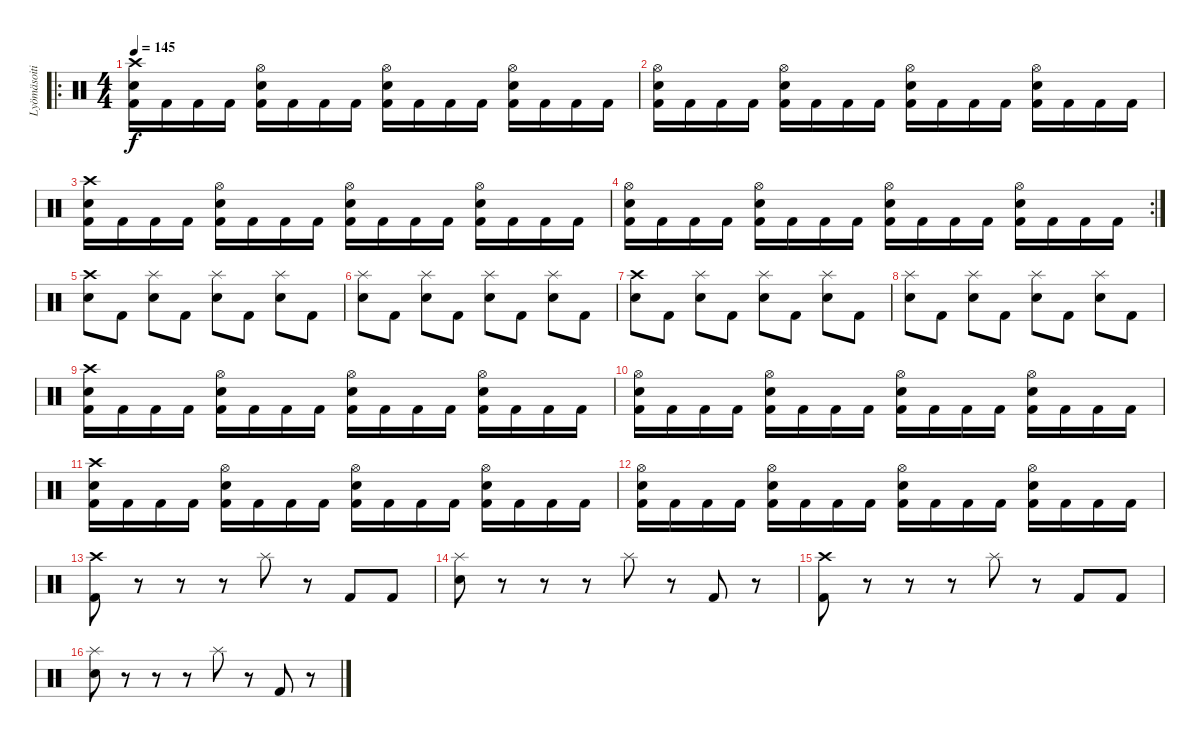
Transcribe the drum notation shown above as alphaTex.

\track ("Lyömäsoitin" "Lyömäsoiti") {instrument percussion}
\staff {score}
\articulation defaults
\ro
\ts (4 4)
\tempo 145
\clef neutral
\ks c
("Kick (hit) 2" "Electric Snare (hit)" "Crash high (hit)").16{dy f} "Kick (hit) 2".16 "Kick (hit) 2".16 "Kick (hit) 2".16 ("Kick (hit) 2" "Electric Snare (hit)" "Hi-Hat (open)").16 "Kick (hit) 2".16 "Kick (hit) 2".16 "Kick (hit) 2".16 ("Kick (hit) 2" "Electric Snare (hit)" "Hi-Hat (open)").16 "Kick (hit) 2".16 "Kick (hit) 2".16 "Kick (hit) 2".16 ("Kick (hit) 2" "Electric Snare (hit)" "Hi-Hat (open)").16 "Kick (hit) 2".16 "Kick (hit) 2".16 "Kick (hit) 2".16 |
("Kick (hit) 2" "Electric Snare (hit)" "Hi-Hat (open)").16 "Kick (hit) 2".16 "Kick (hit) 2".16 "Kick (hit) 2".16 ("Kick (hit) 2" "Electric Snare (hit)" "Hi-Hat (open)").16 "Kick (hit) 2".16 "Kick (hit) 2".16 "Kick (hit) 2".16 ("Kick (hit) 2" "Electric Snare (hit)" "Hi-Hat (open)").16 "Kick (hit) 2".16 "Kick (hit) 2".16 "Kick (hit) 2".16 ("Kick (hit) 2" "Electric Snare (hit)" "Hi-Hat (open)").16 "Kick (hit) 2".16 "Kick (hit) 2".16 "Kick (hit) 2".16 |
("Kick (hit) 2" "Electric Snare (hit)" "Crash high (hit)").16 "Kick (hit) 2".16 "Kick (hit) 2".16 "Kick (hit) 2".16 ("Kick (hit) 2" "Electric Snare (hit)" "Hi-Hat (open)").16 "Kick (hit) 2".16 "Kick (hit) 2".16 "Kick (hit) 2".16 ("Kick (hit) 2" "Electric Snare (hit)" "Hi-Hat (open)").16 "Kick (hit) 2".16 "Kick (hit) 2".16 "Kick (hit) 2".16 ("Kick (hit) 2" "Electric Snare (hit)" "Hi-Hat (open)").16 "Kick (hit) 2".16 "Kick (hit) 2".16 "Kick (hit) 2".16 |
\rc 2
("Kick (hit) 2" "Electric Snare (hit)" "Hi-Hat (open)").16 "Kick (hit) 2".16 "Kick (hit) 2".16 "Kick (hit) 2".16 ("Kick (hit) 2" "Electric Snare (hit)" "Hi-Hat (open)").16 "Kick (hit) 2".16 "Kick (hit) 2".16 "Kick (hit) 2".16 ("Kick (hit) 2" "Electric Snare (hit)" "Hi-Hat (open)").16 "Kick (hit) 2".16 "Kick (hit) 2".16 "Kick (hit) 2".16 ("Kick (hit) 2" "Electric Snare (hit)" "Hi-Hat (open)").16 "Kick (hit) 2".16 "Kick (hit) 2".16 "Kick (hit) 2".16 |
("Electric Snare (hit)" "Crash high (hit)").8 "Kick (hit) 2".8 ("Electric Snare (hit)" "Splash (hit)").8 "Kick (hit) 2".8 ("Electric Snare (hit)" "Splash (hit)").8 "Kick (hit) 2".8 ("Electric Snare (hit)" "Splash (hit)").8 "Kick (hit) 2".8 |
("Electric Snare (hit)" "Splash (hit)").8 "Kick (hit) 2".8 ("Electric Snare (hit)" "Splash (hit)").8 "Kick (hit) 2".8 ("Electric Snare (hit)" "Splash (hit)").8 "Kick (hit) 2".8 ("Electric Snare (hit)" "Splash (hit)").8 "Kick (hit) 2".8 |
("Electric Snare (hit)" "Crash high (hit)").8 "Kick (hit) 2".8 ("Electric Snare (hit)" "Splash (hit)").8 "Kick (hit) 2".8 ("Electric Snare (hit)" "Splash (hit)").8 "Kick (hit) 2".8 ("Electric Snare (hit)" "Splash (hit)").8 "Kick (hit) 2".8 |
("Electric Snare (hit)" "Splash (hit)").8 "Kick (hit) 2".8 ("Electric Snare (hit)" "Splash (hit)").8 "Kick (hit) 2".8 ("Electric Snare (hit)" "Splash (hit)").8 "Kick (hit) 2".8 ("Electric Snare (hit)" "Splash (hit)").8 "Kick (hit) 2".8 |
("Kick (hit) 2" "Electric Snare (hit)" "Crash high (hit)").16 "Kick (hit) 2".16 "Kick (hit) 2".16 "Kick (hit) 2".16 ("Kick (hit) 2" "Electric Snare (hit)" "Hi-Hat (open)").16 "Kick (hit) 2".16 "Kick (hit) 2".16 "Kick (hit) 2".16 ("Kick (hit) 2" "Electric Snare (hit)" "Hi-Hat (open)").16 "Kick (hit) 2".16 "Kick (hit) 2".16 "Kick (hit) 2".16 ("Kick (hit) 2" "Electric Snare (hit)" "Hi-Hat (open)").16 "Kick (hit) 2".16 "Kick (hit) 2".16 "Kick (hit) 2".16 |
("Kick (hit) 2" "Electric Snare (hit)" "Hi-Hat (open)").16 "Kick (hit) 2".16 "Kick (hit) 2".16 "Kick (hit) 2".16 ("Kick (hit) 2" "Electric Snare (hit)" "Hi-Hat (open)").16 "Kick (hit) 2".16 "Kick (hit) 2".16 "Kick (hit) 2".16 ("Kick (hit) 2" "Electric Snare (hit)" "Hi-Hat (open)").16 "Kick (hit) 2".16 "Kick (hit) 2".16 "Kick (hit) 2".16 ("Kick (hit) 2" "Electric Snare (hit)" "Hi-Hat (open)").16 "Kick (hit) 2".16 "Kick (hit) 2".16 "Kick (hit) 2".16 |
("Kick (hit) 2" "Electric Snare (hit)" "Crash high (hit)").16 "Kick (hit) 2".16 "Kick (hit) 2".16 "Kick (hit) 2".16 ("Kick (hit) 2" "Electric Snare (hit)" "Hi-Hat (open)").16 "Kick (hit) 2".16 "Kick (hit) 2".16 "Kick (hit) 2".16 ("Kick (hit) 2" "Electric Snare (hit)" "Hi-Hat (open)").16 "Kick (hit) 2".16 "Kick (hit) 2".16 "Kick (hit) 2".16 ("Kick (hit) 2" "Electric Snare (hit)" "Hi-Hat (open)").16 "Kick (hit) 2".16 "Kick (hit) 2".16 "Kick (hit) 2".16 |
("Kick (hit) 2" "Electric Snare (hit)" "Hi-Hat (open)").16 "Kick (hit) 2".16 "Kick (hit) 2".16 "Kick (hit) 2".16 ("Kick (hit) 2" "Electric Snare (hit)" "Hi-Hat (open)").16 "Kick (hit) 2".16 "Kick (hit) 2".16 "Kick (hit) 2".16 ("Kick (hit) 2" "Electric Snare (hit)" "Hi-Hat (open)").16 "Kick (hit) 2".16 "Kick (hit) 2".16 "Kick (hit) 2".16 ("Kick (hit) 2" "Electric Snare (hit)" "Hi-Hat (open)").16 "Kick (hit) 2".16 "Kick (hit) 2".16 "Kick (hit) 2".16 |
("Kick (hit) 2" "Crash high (hit)").8 r.8 r.8 r.8 "Splash (hit)".8 r.8 "Kick (hit) 2".8 "Kick (hit) 2".8 |
("Electric Snare (hit)" "Splash (hit)").8 r.8 r.8 r.8 "Splash (hit)".8 r.8 "Kick (hit) 2".8 r.8 |
("Kick (hit) 2" "Crash high (hit)").8 r.8 r.8 r.8 "Splash (hit)".8 r.8 "Kick (hit) 2".8 "Kick (hit) 2".8 |
("Electric Snare (hit)" "Splash (hit)").8 r.8 r.8 r.8 "Splash (hit)".8 r.8 "Kick (hit) 2".8 r.8
